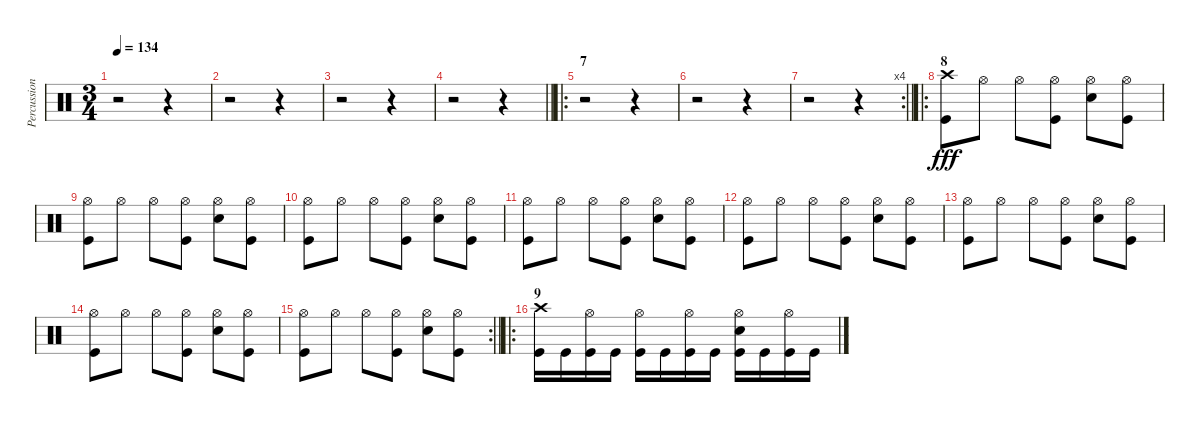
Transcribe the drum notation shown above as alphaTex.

\track ("Percussion" "Percussion") {instrument percussion}
\staff {score}
\articulation defaults
\ts (3 4)
\tempo 134
\clef neutral
\ks c
r.2{dy fff} r.4 |
r.2 r.4 |
r.2 r.4 |
\barLineRight lightlight
r.2 r.4 |
\ro
\section ("" "7")
r.2 r.4 |
r.2 r.4 |
\rc 4
\barLineRight lightlight
r.2 r.4 |
\ro
\section ("" "8")
("Crash high (hit)" "Kick (hit)").8 "Hi-Hat (open)".8 "Hi-Hat (open)".8 ("Hi-Hat (open)" "Kick (hit)").8 ("Hi-Hat (open)" "Snare (hit) 2").8 ("Hi-Hat (open)" "Kick (hit)").8 |
("Hi-Hat (open)" "Kick (hit)").8 "Hi-Hat (open)".8 "Hi-Hat (open)".8 ("Hi-Hat (open)" "Kick (hit)").8 ("Hi-Hat (open)" "Snare (hit) 2").8 ("Hi-Hat (open)" "Kick (hit)").8 |
("Hi-Hat (open)" "Kick (hit)").8 "Hi-Hat (open)".8 "Hi-Hat (open)".8 ("Hi-Hat (open)" "Kick (hit)").8 ("Hi-Hat (open)" "Snare (hit) 2").8 ("Hi-Hat (open)" "Kick (hit)").8 |
("Hi-Hat (open)" "Kick (hit)").8 "Hi-Hat (open)".8 "Hi-Hat (open)".8 ("Hi-Hat (open)" "Kick (hit)").8 ("Hi-Hat (open)" "Snare (hit) 2").8 ("Hi-Hat (open)" "Kick (hit)").8 |
("Hi-Hat (open)" "Kick (hit)").8 "Hi-Hat (open)".8 "Hi-Hat (open)".8 ("Hi-Hat (open)" "Kick (hit)").8 ("Hi-Hat (open)" "Snare (hit) 2").8 ("Hi-Hat (open)" "Kick (hit)").8 |
("Hi-Hat (open)" "Kick (hit)").8 "Hi-Hat (open)".8 "Hi-Hat (open)".8 ("Hi-Hat (open)" "Kick (hit)").8 ("Hi-Hat (open)" "Snare (hit) 2").8 ("Hi-Hat (open)" "Kick (hit)").8 |
("Hi-Hat (open)" "Kick (hit)").8 "Hi-Hat (open)".8 "Hi-Hat (open)".8 ("Hi-Hat (open)" "Kick (hit)").8 ("Hi-Hat (open)" "Snare (hit) 2").8 ("Hi-Hat (open)" "Kick (hit)").8 |
\rc 2
\barLineRight lightlight
("Hi-Hat (open)" "Kick (hit)").8 "Hi-Hat (open)".8 "Hi-Hat (open)".8 ("Hi-Hat (open)" "Kick (hit)").8 ("Hi-Hat (open)" "Snare (hit) 2").8 ("Hi-Hat (open)" "Kick (hit)").8 |
\ro
\section ("" "9")
("Crash high (hit)" "Kick (hit)").16 "Kick (hit)".16 ("Hi-Hat (open)" "Kick (hit)").16 "Kick (hit)".16 ("Hi-Hat (open)" "Kick (hit)").16 "Kick (hit)".16 ("Hi-Hat (open)" "Kick (hit)").16 "Kick (hit)".16 ("Hi-Hat (open)" "Snare (hit) 2" "Kick (hit)").16 "Kick (hit)".16 ("Hi-Hat (open)" "Kick (hit)").16 "Kick (hit)".16
